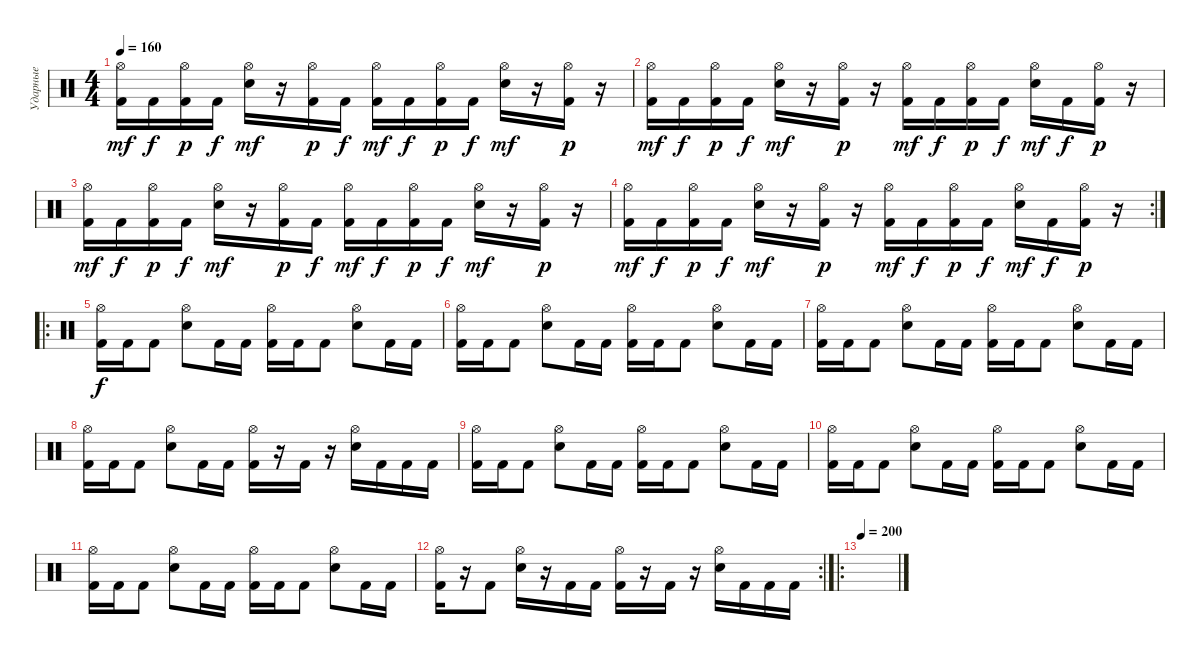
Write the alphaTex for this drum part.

\track ("Ударные" "Ударные") {instrument percussion}
\staff {score}
\articulation defaults
\ts (4 4)
\tempo 160
\clef neutral
\ks c
("Hi-Hat (open)" "Kick (hit) 2").16{dy mf} "Kick (hit) 2".16{dy f} ("Hi-Hat (open)" "Kick (hit) 2").16{dy p} "Kick (hit) 2".16{dy f} ("Hi-Hat (open)" "Electric Snare (hit)").16{dy mf} r.16 ("Hi-Hat (open)" "Kick (hit) 2").16{dy p} "Kick (hit) 2".16{dy f} ("Hi-Hat (open)" "Kick (hit) 2").16{dy mf} "Kick (hit) 2".16{dy f} ("Hi-Hat (open)" "Kick (hit) 2").16{dy p} "Kick (hit) 2".16{dy f} ("Hi-Hat (open)" "Electric Snare (hit)").16{dy mf} r.16 ("Hi-Hat (open)" "Kick (hit) 2").16{dy p} r.16 |
("Hi-Hat (open)" "Kick (hit) 2").16{dy mf} "Kick (hit) 2".16{dy f} ("Hi-Hat (open)" "Kick (hit) 2").16{dy p} "Kick (hit) 2".16{dy f} ("Hi-Hat (open)" "Electric Snare (hit)").16{dy mf} r.16 ("Hi-Hat (open)" "Kick (hit) 2").16{dy p} r.16 ("Hi-Hat (open)" "Kick (hit) 2").16{dy mf} "Kick (hit) 2".16{dy f} ("Hi-Hat (open)" "Kick (hit) 2").16{dy p} "Kick (hit) 2".16{dy f} ("Hi-Hat (open)" "Electric Snare (hit)").16{dy mf} "Kick (hit) 2".16{dy f} ("Hi-Hat (open)" "Kick (hit) 2").16{dy p} r.16 |
("Hi-Hat (open)" "Kick (hit) 2").16{dy mf} "Kick (hit) 2".16{dy f} ("Hi-Hat (open)" "Kick (hit) 2").16{dy p} "Kick (hit) 2".16{dy f} ("Hi-Hat (open)" "Electric Snare (hit)").16{dy mf} r.16 ("Hi-Hat (open)" "Kick (hit) 2").16{dy p} "Kick (hit) 2".16{dy f} ("Hi-Hat (open)" "Kick (hit) 2").16{dy mf} "Kick (hit) 2".16{dy f} ("Hi-Hat (open)" "Kick (hit) 2").16{dy p} "Kick (hit) 2".16{dy f} ("Hi-Hat (open)" "Electric Snare (hit)").16{dy mf} r.16 ("Hi-Hat (open)" "Kick (hit) 2").16{dy p} r.16 |
\rc 2
("Hi-Hat (open)" "Kick (hit) 2").16{dy mf} "Kick (hit) 2".16{dy f} ("Hi-Hat (open)" "Kick (hit) 2").16{dy p} "Kick (hit) 2".16{dy f} ("Hi-Hat (open)" "Electric Snare (hit)").16{dy mf} r.16 ("Hi-Hat (open)" "Kick (hit) 2").16{dy p} r.16 ("Hi-Hat (open)" "Kick (hit) 2").16{dy mf} "Kick (hit) 2".16{dy f} ("Hi-Hat (open)" "Kick (hit) 2").16{dy p} "Kick (hit) 2".16{dy f} ("Hi-Hat (open)" "Electric Snare (hit)").16{dy mf} "Kick (hit) 2".16{dy f} ("Hi-Hat (open)" "Kick (hit) 2").16{dy p} r.16 |
\ro
("Hi-Hat (open)" "Kick (hit) 2").16{dy f} "Kick (hit) 2".16 "Kick (hit) 2".8 ("Hi-Hat (open)" "Electric Snare (hit)").8 "Kick (hit) 2".16 "Kick (hit) 2".16 ("Hi-Hat (open)" "Kick (hit) 2").16 "Kick (hit) 2".16 "Kick (hit) 2".8 ("Hi-Hat (open)" "Electric Snare (hit)").8 "Kick (hit) 2".16 "Kick (hit) 2".16 |
("Hi-Hat (open)" "Kick (hit) 2").16 "Kick (hit) 2".16 "Kick (hit) 2".8 ("Hi-Hat (open)" "Electric Snare (hit)").8 "Kick (hit) 2".16 "Kick (hit) 2".16 ("Hi-Hat (open)" "Kick (hit) 2").16 "Kick (hit) 2".16 "Kick (hit) 2".8 ("Hi-Hat (open)" "Electric Snare (hit)").8 "Kick (hit) 2".16 "Kick (hit) 2".16 |
("Hi-Hat (open)" "Kick (hit) 2").16 "Kick (hit) 2".16 "Kick (hit) 2".8 ("Hi-Hat (open)" "Electric Snare (hit)").8 "Kick (hit) 2".16 "Kick (hit) 2".16 ("Hi-Hat (open)" "Kick (hit) 2").16 "Kick (hit) 2".16 "Kick (hit) 2".8 ("Hi-Hat (open)" "Electric Snare (hit)").8 "Kick (hit) 2".16 "Kick (hit) 2".16 |
("Hi-Hat (open)" "Kick (hit) 2").16 "Kick (hit) 2".16 "Kick (hit) 2".8 ("Hi-Hat (open)" "Electric Snare (hit)").8 "Kick (hit) 2".16 "Kick (hit) 2".16 ("Hi-Hat (open)" "Kick (hit) 2").16 r.16 "Kick (hit) 2".16 r.16 ("Hi-Hat (open)" "Electric Snare (hit)").16 "Kick (hit) 2".16 "Kick (hit) 2".16 "Kick (hit) 2".16 |
("Hi-Hat (open)" "Kick (hit) 2").16 "Kick (hit) 2".16 "Kick (hit) 2".8 ("Hi-Hat (open)" "Electric Snare (hit)").8 "Kick (hit) 2".16 "Kick (hit) 2".16 ("Hi-Hat (open)" "Kick (hit) 2").16 "Kick (hit) 2".16 "Kick (hit) 2".8 ("Hi-Hat (open)" "Electric Snare (hit)").8 "Kick (hit) 2".16 "Kick (hit) 2".16 |
("Hi-Hat (open)" "Kick (hit) 2").16 "Kick (hit) 2".16 "Kick (hit) 2".8 ("Hi-Hat (open)" "Electric Snare (hit)").8 "Kick (hit) 2".16 "Kick (hit) 2".16 ("Hi-Hat (open)" "Kick (hit) 2").16 "Kick (hit) 2".16 "Kick (hit) 2".8 ("Hi-Hat (open)" "Electric Snare (hit)").8 "Kick (hit) 2".16 "Kick (hit) 2".16 |
("Hi-Hat (open)" "Kick (hit) 2").16 "Kick (hit) 2".16 "Kick (hit) 2".8 ("Hi-Hat (open)" "Electric Snare (hit)").8 "Kick (hit) 2".16 "Kick (hit) 2".16 ("Hi-Hat (open)" "Kick (hit) 2").16 "Kick (hit) 2".16 "Kick (hit) 2".8 ("Hi-Hat (open)" "Electric Snare (hit)").8 "Kick (hit) 2".16 "Kick (hit) 2".16 |
\rc 2
("Hi-Hat (open)" "Kick (hit) 2").16 r.16 "Kick (hit) 2".8 ("Hi-Hat (open)" "Electric Snare (hit)").16 r.16 "Kick (hit) 2".16 "Kick (hit) 2".16 ("Hi-Hat (open)" "Kick (hit) 2").16 r.16 "Kick (hit) 2".16 r.16 ("Hi-Hat (open)" "Electric Snare (hit)").16 "Kick (hit) 2".16 "Kick (hit) 2".16 "Kick (hit) 2".16 |
\ro
\tempo 200
